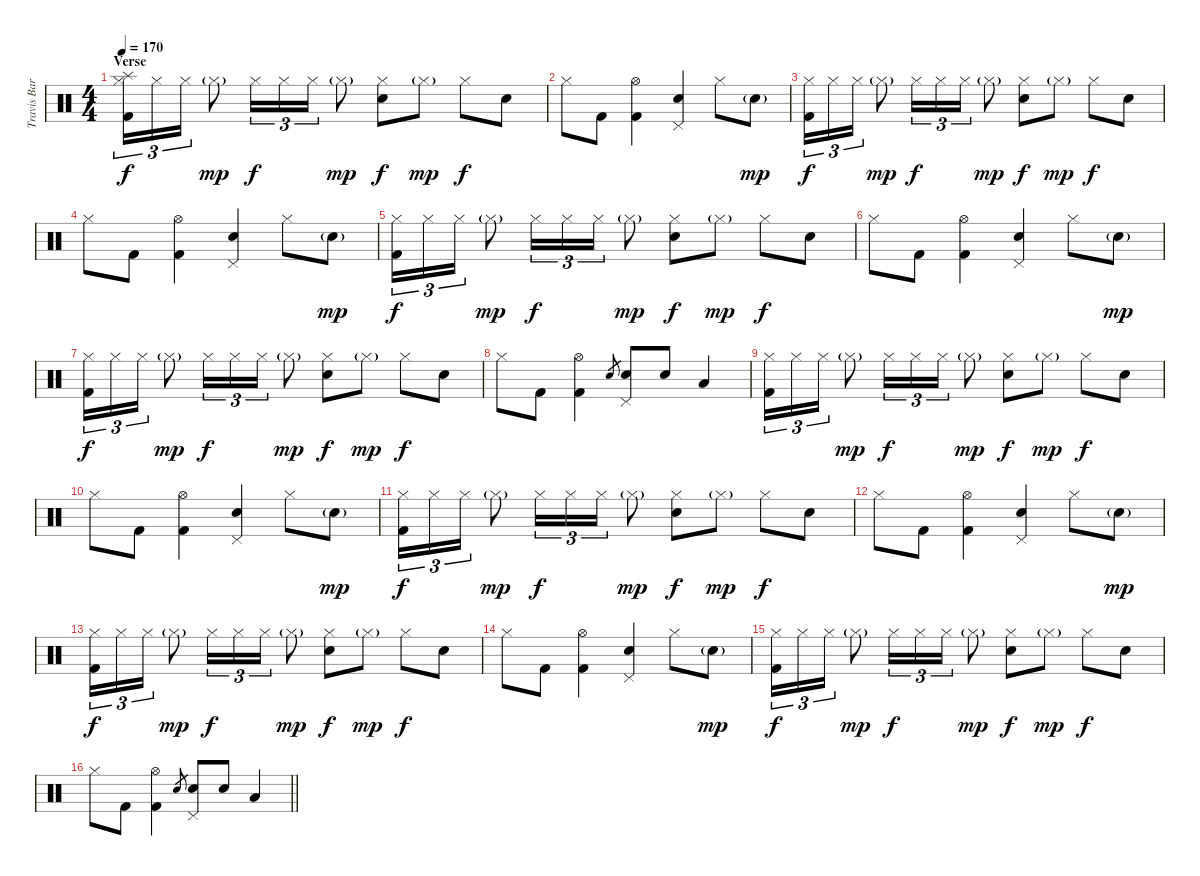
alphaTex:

\track ("Travis Barker - Drums" "Travis Bar") {instrument percussion}
\staff {score}
\articulation defaults
\ts (4 4)
\section ("" "Verse")
\tempo 170
\clef neutral
\ks c
("Hi-Hat (closed)" "Splash (hit)" "Kick (hit) 2").16{tu (3 2) dy f} "Hi-Hat (closed)".16{tu (3 2)} "Hi-Hat (closed)".16{tu (3 2)} "Hi-Hat (closed)"{g}.8{dy mp} "Hi-Hat (closed)".16{tu (3 2) dy f} "Hi-Hat (closed)".16{tu (3 2)} "Hi-Hat (closed)".16{tu (3 2)} "Hi-Hat (closed)"{g}.8{dy mp} ("Hi-Hat (closed)" "Electric Snare (hit)").8{dy f} "Hi-Hat (closed)"{g}.8{dy mp} "Hi-Hat (closed)".8{dy f} "Electric Snare (hit)".8 |
"Hi-Hat (closed)".8 "Kick (hit) 2".8 ("Hi-Hat (open)" "Kick (hit) 2").4 ("Pedal Hi-Hat (hit)" "Electric Snare (hit)").4 "Hi-Hat (closed)".8 "Electric Snare (hit)"{g}.8{dy mp} |
("Hi-Hat (closed)" "Kick (hit) 2").16{tu (3 2) dy f} "Hi-Hat (closed)".16{tu (3 2)} "Hi-Hat (closed)".16{tu (3 2)} "Hi-Hat (closed)"{g}.8{dy mp} "Hi-Hat (closed)".16{tu (3 2) dy f} "Hi-Hat (closed)".16{tu (3 2)} "Hi-Hat (closed)".16{tu (3 2)} "Hi-Hat (closed)"{g}.8{dy mp} ("Hi-Hat (closed)" "Electric Snare (hit)").8{dy f} "Hi-Hat (closed)"{g}.8{dy mp} "Hi-Hat (closed)".8{dy f} "Electric Snare (hit)".8 |
"Hi-Hat (closed)".8 "Kick (hit) 2".8 ("Hi-Hat (open)" "Kick (hit) 2").4 ("Pedal Hi-Hat (hit)" "Electric Snare (hit)").4 "Hi-Hat (closed)".8 "Electric Snare (hit)"{g}.8{dy mp} |
("Hi-Hat (closed)" "Kick (hit) 2").16{tu (3 2) dy f} "Hi-Hat (closed)".16{tu (3 2)} "Hi-Hat (closed)".16{tu (3 2)} "Hi-Hat (closed)"{g}.8{dy mp} "Hi-Hat (closed)".16{tu (3 2) dy f} "Hi-Hat (closed)".16{tu (3 2)} "Hi-Hat (closed)".16{tu (3 2)} "Hi-Hat (closed)"{g}.8{dy mp} ("Hi-Hat (closed)" "Electric Snare (hit)").8{dy f} "Hi-Hat (closed)"{g}.8{dy mp} "Hi-Hat (closed)".8{dy f} "Electric Snare (hit)".8 |
"Hi-Hat (closed)".8 "Kick (hit) 2".8 ("Hi-Hat (open)" "Kick (hit) 2").4 ("Pedal Hi-Hat (hit)" "Electric Snare (hit)").4 "Hi-Hat (closed)".8 "Electric Snare (hit)"{g}.8{dy mp} |
("Hi-Hat (closed)" "Kick (hit) 2").16{tu (3 2) dy f} "Hi-Hat (closed)".16{tu (3 2)} "Hi-Hat (closed)".16{tu (3 2)} "Hi-Hat (closed)"{g}.8{dy mp} "Hi-Hat (closed)".16{tu (3 2) dy f} "Hi-Hat (closed)".16{tu (3 2)} "Hi-Hat (closed)".16{tu (3 2)} "Hi-Hat (closed)"{g}.8{dy mp} ("Hi-Hat (closed)" "Electric Snare (hit)").8{dy f} "Hi-Hat (closed)"{g}.8{dy mp} "Hi-Hat (closed)".8{dy f} "Electric Snare (hit)".8 |
"Hi-Hat (closed)".8 "Kick (hit) 2".8 ("Hi-Hat (open)" "Kick (hit) 2").4 "Electric Snare (hit)".8{gr} ("Pedal Hi-Hat (hit)" "Electric Snare (hit)").8 "Electric Snare (hit)".8 "Low Tom (hit)".4 |
("Hi-Hat (closed)" "Kick (hit) 2").16{tu (3 2)} "Hi-Hat (closed)".16{tu (3 2)} "Hi-Hat (closed)".16{tu (3 2)} "Hi-Hat (closed)"{g}.8{dy mp} "Hi-Hat (closed)".16{tu (3 2) dy f} "Hi-Hat (closed)".16{tu (3 2)} "Hi-Hat (closed)".16{tu (3 2)} "Hi-Hat (closed)"{g}.8{dy mp} ("Hi-Hat (closed)" "Electric Snare (hit)").8{dy f} "Hi-Hat (closed)"{g}.8{dy mp} "Hi-Hat (closed)".8{dy f} "Electric Snare (hit)".8 |
"Hi-Hat (closed)".8 "Kick (hit) 2".8 ("Hi-Hat (open)" "Kick (hit) 2").4 ("Pedal Hi-Hat (hit)" "Electric Snare (hit)").4 "Hi-Hat (closed)".8 "Electric Snare (hit)"{g}.8{dy mp} |
("Hi-Hat (closed)" "Kick (hit) 2").16{tu (3 2) dy f} "Hi-Hat (closed)".16{tu (3 2)} "Hi-Hat (closed)".16{tu (3 2)} "Hi-Hat (closed)"{g}.8{dy mp} "Hi-Hat (closed)".16{tu (3 2) dy f} "Hi-Hat (closed)".16{tu (3 2)} "Hi-Hat (closed)".16{tu (3 2)} "Hi-Hat (closed)"{g}.8{dy mp} ("Hi-Hat (closed)" "Electric Snare (hit)").8{dy f} "Hi-Hat (closed)"{g}.8{dy mp} "Hi-Hat (closed)".8{dy f} "Electric Snare (hit)".8 |
"Hi-Hat (closed)".8 "Kick (hit) 2".8 ("Hi-Hat (open)" "Kick (hit) 2").4 ("Pedal Hi-Hat (hit)" "Electric Snare (hit)").4 "Hi-Hat (closed)".8 "Electric Snare (hit)"{g}.8{dy mp} |
("Hi-Hat (closed)" "Kick (hit) 2").16{tu (3 2) dy f} "Hi-Hat (closed)".16{tu (3 2)} "Hi-Hat (closed)".16{tu (3 2)} "Hi-Hat (closed)"{g}.8{dy mp} "Hi-Hat (closed)".16{tu (3 2) dy f} "Hi-Hat (closed)".16{tu (3 2)} "Hi-Hat (closed)".16{tu (3 2)} "Hi-Hat (closed)"{g}.8{dy mp} ("Hi-Hat (closed)" "Electric Snare (hit)").8{dy f} "Hi-Hat (closed)"{g}.8{dy mp} "Hi-Hat (closed)".8{dy f} "Electric Snare (hit)".8 |
"Hi-Hat (closed)".8 "Kick (hit) 2".8 ("Hi-Hat (open)" "Kick (hit) 2").4 ("Pedal Hi-Hat (hit)" "Electric Snare (hit)").4 "Hi-Hat (closed)".8 "Electric Snare (hit)"{g}.8{dy mp} |
("Hi-Hat (closed)" "Kick (hit) 2").16{tu (3 2) dy f} "Hi-Hat (closed)".16{tu (3 2)} "Hi-Hat (closed)".16{tu (3 2)} "Hi-Hat (closed)"{g}.8{dy mp} "Hi-Hat (closed)".16{tu (3 2) dy f} "Hi-Hat (closed)".16{tu (3 2)} "Hi-Hat (closed)".16{tu (3 2)} "Hi-Hat (closed)"{g}.8{dy mp} ("Hi-Hat (closed)" "Electric Snare (hit)").8{dy f} "Hi-Hat (closed)"{g}.8{dy mp} "Hi-Hat (closed)".8{dy f} "Electric Snare (hit)".8 |
\barLineRight lightlight "Hi-Hat (closed)".8 "Kick (hit) 2".8
("Hi-Hat (open)" "Kick (hit) 2").4 "Electric Snare (hit)".8{gr} ("Pedal Hi-Hat (hit)" "Electric Snare (hit)").8 "Electric Snare (hit)".8 "Low Tom (hit)".4
